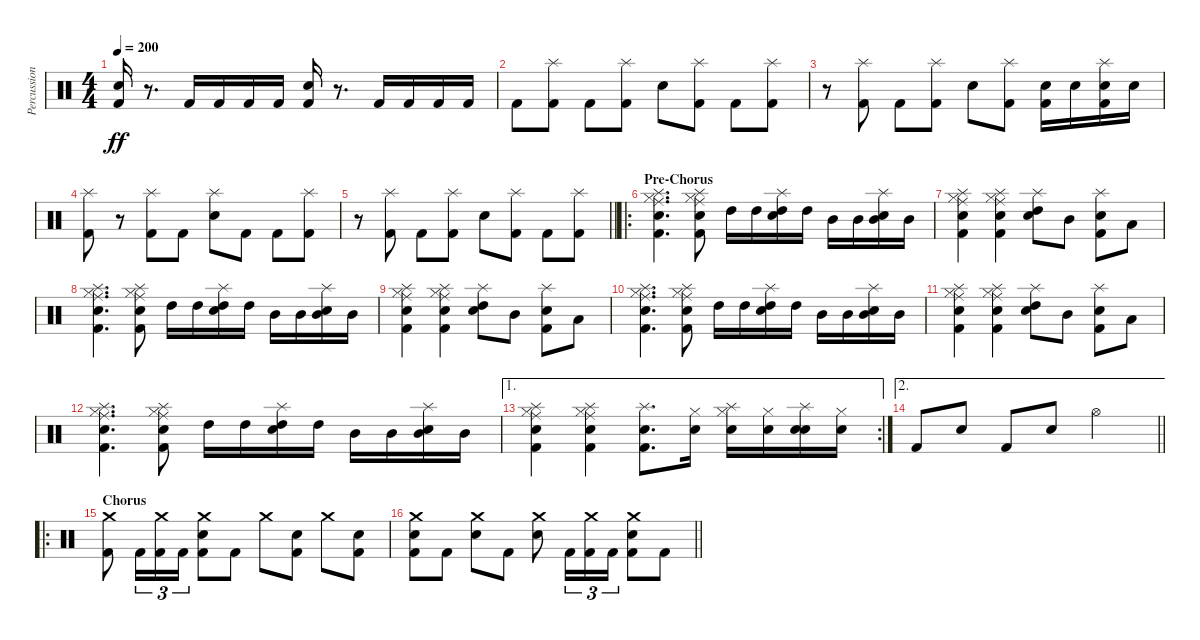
\track ("Percussion" "Percussion") {instrument percussion}
\staff {score}
\articulation defaults
\ts (4 4)
\tempo 200
\clef neutral
\ks c
("Electric Snare (hit)" "Kick (hit) 2").16{dy ff} r.8{d} "Kick (hit) 2".16 "Kick (hit) 2".16 "Kick (hit) 2".16 "Kick (hit) 2".16 ("Electric Snare (hit)" "Kick (hit) 2").16 r.8{d} "Kick (hit) 2".16 "Kick (hit) 2".16 "Kick (hit) 2".16 "Kick (hit) 2".16 |
"Kick (hit) 2".8 ("Splash (hit)" "Kick (hit) 2").8 "Kick (hit) 2".8 ("Splash (hit)" "Kick (hit) 2").8 "Electric Snare (hit)".8 ("Splash (hit)" "Kick (hit) 2").8 "Kick (hit) 2".8 ("Splash (hit)" "Kick (hit) 2").8 |
r.8 ("Splash (hit)" "Kick (hit) 2").8 "Kick (hit) 2".8 ("Splash (hit)" "Kick (hit) 2").8 "Electric Snare (hit)".8 ("Splash (hit)" "Kick (hit) 2").8 ("Electric Snare (hit)" "Kick (hit) 2").16 "Electric Snare (hit)".16 ("Splash (hit)" "Electric Snare (hit)" "Kick (hit) 2").16 "Electric Snare (hit)".16 |
("Splash (hit)" "Kick (hit) 2").8 r.8 ("Splash (hit)" "Kick (hit) 2").8 "Kick (hit) 2".8 ("Splash (hit)" "Electric Snare (hit)").8 "Kick (hit) 2".8 "Kick (hit) 2".8 ("Splash (hit)" "Kick (hit) 2").8 |
\barLineRight lightlight
r.8 ("Splash (hit)" "Kick (hit) 2").8 "Kick (hit) 2".8 ("Splash (hit)" "Kick (hit) 2").8 "Electric Snare (hit)".8 ("Splash (hit)" "Kick (hit) 2").8 "Kick (hit) 2".8 ("Splash (hit)" "Kick (hit) 2").8 |
\ro
\section ("" "Pre-Chorus")
("Splash (hit)" "Ride (middle)" "Hi-Hat (closed)" "Electric Snare (hit)" "Kick (hit) 2").4{d} ("Splash (hit)" "Ride (middle)" "Hi-Hat (closed)" "Electric Snare (hit)" "Kick (hit) 2").8 "High Tom (hit)".16 "High Tom (hit)".16 ("Splash (hit)" "Electric Snare (hit)" "High Tom (hit)").16 "High Tom (hit)".16 "Mid Tom (hit)".16 "Mid Tom (hit)".16 ("Splash (hit)" "Electric Snare (hit)" "Mid Tom (hit)").16 "Mid Tom (hit)".16 |
("Splash (hit)" "Ride (middle)" "Hi-Hat (closed)" "Electric Snare (hit)" "Kick (hit) 2").4 ("Splash (hit)" "Ride (middle)" "Hi-Hat (closed)" "Electric Snare (hit)" "Kick (hit) 2").4 ("Splash (hit)" "Electric Snare (hit)" "High Tom (hit)").8 "Mid Tom (hit)".8 ("Splash (hit)" "Electric Snare (hit)" "Kick (hit) 2").8 "Low Tom (hit)".8 |
("Splash (hit)" "Ride (middle)" "Hi-Hat (closed)" "Electric Snare (hit)" "Kick (hit) 2").4{d} ("Splash (hit)" "Ride (middle)" "Hi-Hat (closed)" "Electric Snare (hit)" "Kick (hit) 2").8 "High Tom (hit)".16 "High Tom (hit)".16 ("Splash (hit)" "Electric Snare (hit)" "High Tom (hit)").16 "High Tom (hit)".16 "Mid Tom (hit)".16 "Mid Tom (hit)".16 ("Splash (hit)" "Electric Snare (hit)" "Mid Tom (hit)").16 "Mid Tom (hit)".16 |
("Splash (hit)" "Ride (middle)" "Hi-Hat (closed)" "Electric Snare (hit)" "Kick (hit) 2").4 ("Splash (hit)" "Ride (middle)" "Hi-Hat (closed)" "Electric Snare (hit)" "Kick (hit) 2").4 ("Splash (hit)" "Electric Snare (hit)" "High Tom (hit)").8 "Mid Tom (hit)".8 ("Splash (hit)" "Electric Snare (hit)" "Kick (hit) 2").8 "Low Tom (hit)".8 |
("Splash (hit)" "Ride (middle)" "Hi-Hat (closed)" "Electric Snare (hit)" "Kick (hit) 2").4{d} ("Splash (hit)" "Ride (middle)" "Hi-Hat (closed)" "Electric Snare (hit)" "Kick (hit) 2").8 "High Tom (hit)".16 "High Tom (hit)".16 ("Splash (hit)" "Electric Snare (hit)" "High Tom (hit)").16 "High Tom (hit)".16 "Mid Tom (hit)".16 "Mid Tom (hit)".16 ("Splash (hit)" "Electric Snare (hit)" "Mid Tom (hit)").16 "Mid Tom (hit)".16 |
("Splash (hit)" "Ride (middle)" "Hi-Hat (closed)" "Electric Snare (hit)" "Kick (hit) 2").4 ("Splash (hit)" "Ride (middle)" "Hi-Hat (closed)" "Electric Snare (hit)" "Kick (hit) 2").4 ("Splash (hit)" "Electric Snare (hit)" "High Tom (hit)").8 "Mid Tom (hit)".8 ("Splash (hit)" "Electric Snare (hit)" "Kick (hit) 2").8 "Low Tom (hit)".8 |
("Splash (hit)" "Ride (middle)" "Hi-Hat (closed)" "Electric Snare (hit)" "Kick (hit) 2").4{d} ("Splash (hit)" "Ride (middle)" "Hi-Hat (closed)" "Electric Snare (hit)" "Kick (hit) 2").8 "High Tom (hit)".16 "High Tom (hit)".16 ("Splash (hit)" "Electric Snare (hit)" "High Tom (hit)").16 "High Tom (hit)".16 "Mid Tom (hit)".16 "Mid Tom (hit)".16 ("Splash (hit)" "Electric Snare (hit)" "Mid Tom (hit)").16 "Mid Tom (hit)".16 |
\ae 1
\rc 2
("Splash (hit)" "Ride (middle)" "Hi-Hat (closed)" "Electric Snare (hit)" "Kick (hit) 2").4 ("Splash (hit)" "Ride (middle)" "Hi-Hat (closed)" "Electric Snare (hit)" "Kick (hit) 2").4 ("Splash (hit)" "Electric Snare (hit)" "Kick (hit) 2").8{d} ("Hi-Hat (closed)" "Electric Snare (hit)").16 ("Splash (hit)" "Hi-Hat (closed)" "Electric Snare (hit)").16 ("Hi-Hat (closed)" "Electric Snare (hit)").16 ("Splash (hit)" "Snare (hit)" "Electric Snare (hit)").16 ("Hi-Hat (closed)" "Electric Snare (hit)").16 |
\ae 2
\barLineRight lightlight "Kick (hit) 2".8 "Electric Snare (hit)".8 "Kick (hit) 2".8 "Electric Snare (hit)".8 "Hi-Hat (open)".2
|
\ro
\section ("" "Chorus")
("Crash medium (hit)" "Kick (hit) 2").8 "Kick (hit) 2".16{tu (3 2)} ("Crash medium (hit)" "Kick (hit) 2").16{tu (3 2)} "Kick (hit) 2".16{tu (3 2)} ("Crash medium (hit)" "Electric Snare (hit)" "Kick (hit) 2").8 "Kick (hit) 2".8 "Crash medium (hit)".8 ("Electric Snare (hit)" "Kick (hit) 2").8 "Crash medium (hit)".8 ("Electric Snare (hit)" "Kick (hit) 2").8 |
\barLineRight lightlight
("Crash medium (hit)" "Electric Snare (hit)" "Kick (hit) 2").8 "Kick (hit) 2".8 ("Crash medium (hit)" "Electric Snare (hit)").8 "Kick (hit) 2".8 ("Crash medium (hit)" "Electric Snare (hit)").8 "Kick (hit) 2".16{tu (3 2)} ("Crash medium (hit)" "Kick (hit) 2").16{tu (3 2)} "Kick (hit) 2".16{tu (3 2)} ("Crash medium (hit)" "Electric Snare (hit)" "Kick (hit) 2").8 "Kick (hit) 2".8
